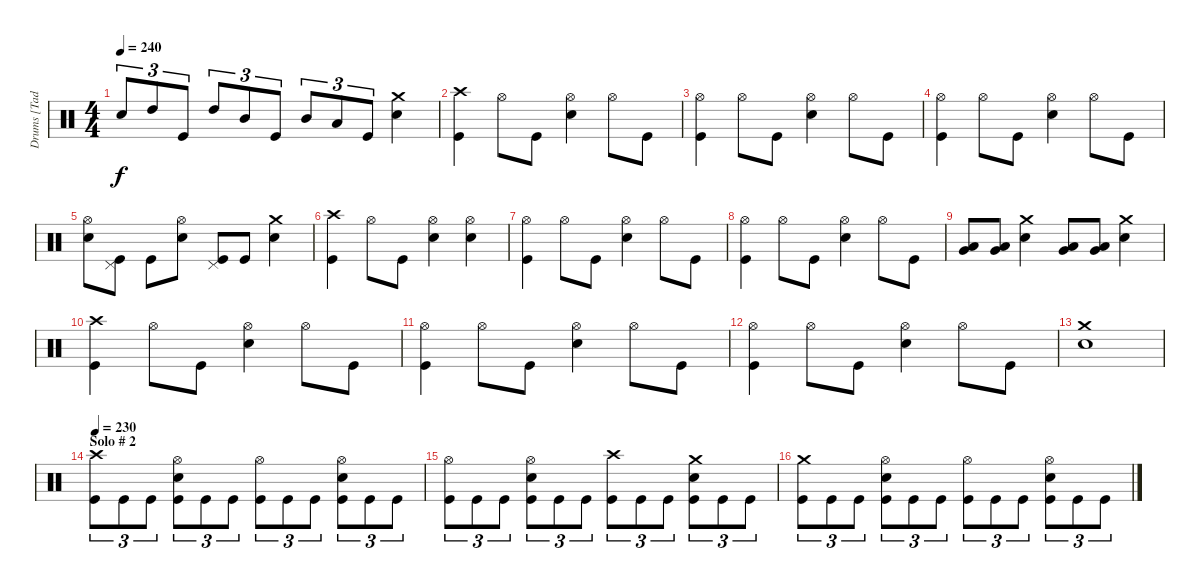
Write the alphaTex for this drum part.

\track ("Drums [Tad Leger]" "Drums [Tad") {instrument percussion}
\staff {score}
\articulation defaults
\ts (4 4)
\tempo 240
\clef neutral
\ks c "Electric Snare (hit)".8{tu (3 2) dy f} "High Tom (hit)".8{tu (3 2)} "Kick (hit)".8{tu (3 2)} "High Tom (hit)".8{tu (3 2)} "Mid Tom (hit)".8{tu (3 2)} "Kick (hit)".8{tu (3 2)} "Mid Tom (hit)".8{tu (3 2)} "Low Tom (hit)".8{tu (3 2)} "Kick (hit)".8{tu (3 2)}
("Crash medium (hit)" "Electric Snare (hit)").4 |
("Crash high (hit)" "Kick (hit)").4 "Hi-Hat (open)".8 "Kick (hit)".8 ("Hi-Hat (open)" "Electric Snare (hit)").4 "Hi-Hat (open)".8 "Kick (hit)".8 |
("Hi-Hat (open)" "Kick (hit)").4 "Hi-Hat (open)".8 "Kick (hit)".8 ("Hi-Hat (open)" "Electric Snare (hit)").4 "Hi-Hat (open)".8 "Kick (hit)".8 |
("Hi-Hat (open)" "Kick (hit)").4 "Hi-Hat (open)".8 "Kick (hit)".8 ("Hi-Hat (open)" "Electric Snare (hit)").4 "Hi-Hat (open)".8 "Kick (hit)".8 |
("Hi-Hat (open)" "Electric Snare (hit)").8 ("Pedal Hi-Hat (hit)" "Kick (hit)").8 "Kick (hit)".8 ("Hi-Hat (open)" "Electric Snare (hit)").8 ("Pedal Hi-Hat (hit)" "Kick (hit)").8 "Kick (hit)".8 ("Crash medium (hit)" "Electric Snare (hit)").4 |
("Crash high (hit)" "Kick (hit)").4 "Hi-Hat (open)".8 "Kick (hit)".8 ("Hi-Hat (open)" "Electric Snare (hit)").4 ("Hi-Hat (open)" "Electric Snare (hit)").4 |
("Hi-Hat (open)" "Kick (hit)").4 "Hi-Hat (open)".8 "Kick (hit)".8 ("Hi-Hat (open)" "Electric Snare (hit)").4 "Hi-Hat (open)".8 "Kick (hit)".8 |
("Hi-Hat (open)" "Kick (hit)").4 "Hi-Hat (open)".8 "Kick (hit)".8 ("Hi-Hat (open)" "Electric Snare (hit)").4 "Hi-Hat (open)".8 "Kick (hit)".8 |
("Very Low Tom (hit)" "Low Tom (hit)").8 ("Very Low Tom (hit)" "Low Tom (hit)").8 ("Crash medium (hit)" "Electric Snare (hit)").4 ("Very Low Tom (hit)" "Low Tom (hit)").8 ("Very Low Tom (hit)" "Low Tom (hit)").8 ("Crash medium (hit)" "Electric Snare (hit)").4 |
("Crash high (hit)" "Kick (hit)").4 "Hi-Hat (open)".8 "Kick (hit)".8 ("Hi-Hat (open)" "Electric Snare (hit)").4 "Hi-Hat (open)".8 "Kick (hit)".8 |
("Hi-Hat (open)" "Kick (hit)").4 "Hi-Hat (open)".8 "Kick (hit)".8 ("Hi-Hat (open)" "Electric Snare (hit)").4 "Hi-Hat (open)".8 "Kick (hit)".8 |
("Hi-Hat (open)" "Kick (hit)").4 "Hi-Hat (open)".8 "Kick (hit)".8 ("Hi-Hat (open)" "Electric Snare (hit)").4 "Hi-Hat (open)".8 "Kick (hit)".8 |
("Crash medium (hit)" "Electric Snare (hit)").1 |
\section ("" "Solo # 2")
\tempo 230
("Crash high (hit)" "Kick (hit)").8{tu (3 2)} "Kick (hit)".8{tu (3 2)} "Kick (hit)".8{tu (3 2)} ("Hi-Hat (open)" "Electric Snare (hit)" "Kick (hit)").8{tu (3 2)} "Kick (hit)".8{tu (3 2)} "Kick (hit)".8{tu (3 2)} ("Hi-Hat (open)" "Kick (hit)").8{tu (3 2)} "Kick (hit)".8{tu (3 2)} "Kick (hit)".8{tu (3 2)} ("Hi-Hat (open)" "Electric Snare (hit)" "Kick (hit)").8{tu (3 2)} "Kick (hit)".8{tu (3 2)} "Kick (hit)".8{tu (3 2)} |
("Hi-Hat (open)" "Kick (hit)").8{tu (3 2)} "Kick (hit)".8{tu (3 2)} "Kick (hit)".8{tu (3 2)} ("Hi-Hat (open)" "Electric Snare (hit)" "Kick (hit)").8{tu (3 2)} "Kick (hit)".8{tu (3 2)} "Kick (hit)".8{tu (3 2)} ("Crash high (hit)" "Kick (hit)").8{tu (3 2)} "Kick (hit)".8{tu (3 2)} "Kick (hit)".8{tu (3 2)} ("Crash medium (hit)" "Electric Snare (hit)" "Kick (hit)").8{tu (3 2)} "Kick (hit)".8{tu (3 2)} "Kick (hit)".8{tu (3 2)} |
("Crash medium (hit)" "Kick (hit)").8{tu (3 2)} "Kick (hit)".8{tu (3 2)} "Kick (hit)".8{tu (3 2)} ("Hi-Hat (open)" "Electric Snare (hit)" "Kick (hit)").8{tu (3 2)} "Kick (hit)".8{tu (3 2)} "Kick (hit)".8{tu (3 2)} ("Hi-Hat (open)" "Kick (hit)").8{tu (3 2)} "Kick (hit)".8{tu (3 2)} "Kick (hit)".8{tu (3 2)} ("Hi-Hat (open)" "Electric Snare (hit)" "Kick (hit)").8{tu (3 2)} "Kick (hit)".8{tu (3 2)} "Kick (hit)".8{tu (3 2)}
